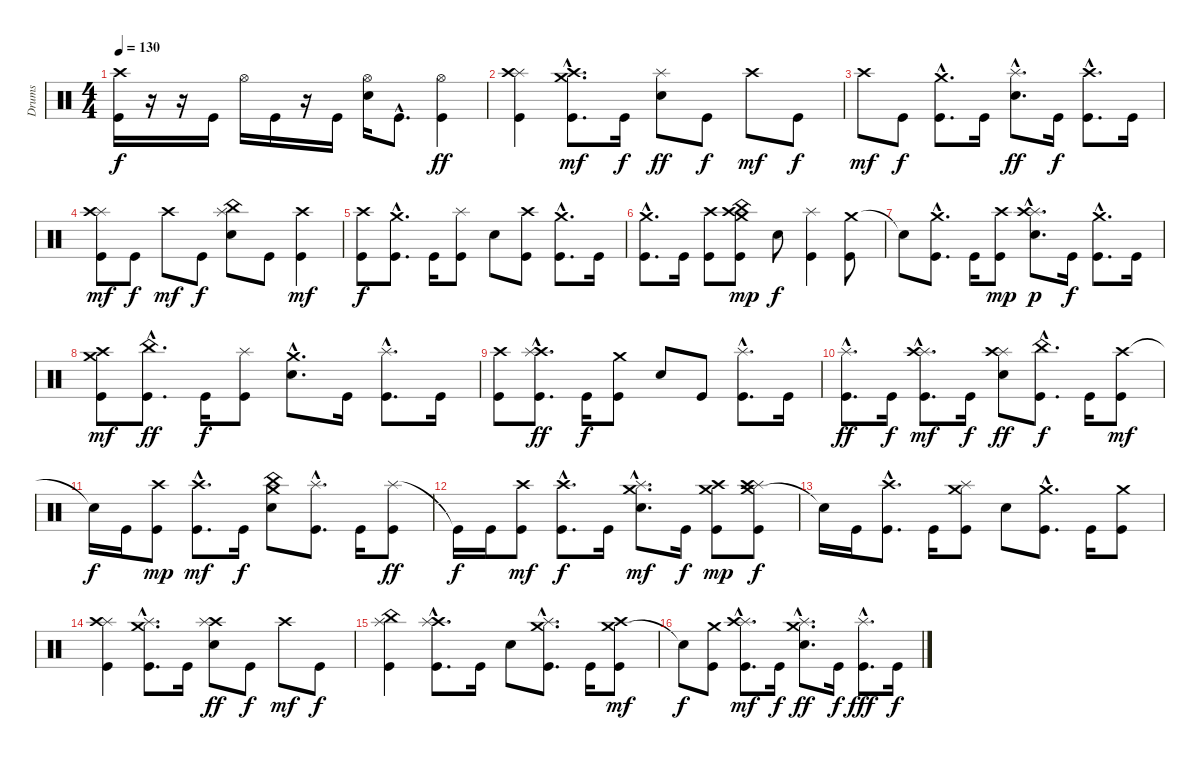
\track ("Drums" "Drums") {instrument percussion}
\staff {score}
\articulation defaults
\ts (4 4)
\tempo 130
\clef neutral
\ks c
("Crash high (hit)" "Kick (hit)").16{dy f} r.16 r.16 "Kick (hit)".16 "Hi-Hat (open)".16 "Kick (hit)".16 r.16 "Kick (hit)".16 ("Hi-Hat (open)" "Electric Snare (hit)").16 "Kick (hit)"{hac}.8{d} ("Hi-Hat (open)" "Kick (hit)").4{dy ff} |
("Splash (hit)" "Crash high (hit)" "Kick (hit)").4 ("Crash medium (hit)"{hac} "Crash high (hit)"{hac} "Kick (hit)"{hac}).8{d dy mf} "Kick (hit)".16{dy f} ("Splash (hit)" "Electric Snare (hit)").8{dy ff} "Kick (hit)".8{dy f} "Crash high (hit)".8{dy mf} "Kick (hit)".8{dy f} |
"Crash high (hit)".8{dy mf} "Kick (hit)".8{dy f} ("Crash medium (hit)"{hac} "Kick (hit)"{hac}).8{d} "Kick (hit)".16 ("Splash (hit)"{hac} "Electric Snare (hit)"{hac}).8{d dy ff} "Kick (hit)".16{dy f} ("Crash high (hit)"{hac} "Kick (hit)"{hac}).8{d} "Kick (hit)".16 |
("Splash (hit)" "Crash high (hit)" "Kick (hit)").8{dy mf} "Kick (hit)".8{dy f} "Crash high (hit)".8{dy mf} "Kick (hit)".8{dy f} ("Splash (hit)" "China (hit)" "Electric Snare (hit)").8 "Kick (hit)".8 ("Crash high (hit)" "Kick (hit)").4{dy mf} |
("Crash high (hit)" "Kick (hit)").8{dy f} ("Crash medium (hit)"{hac} "Kick (hit)"{hac}).8{d} "Kick (hit)".16 ("Splash (hit)" "Kick (hit)").8 "Electric Snare (hit)".8 ("Crash high (hit)" "Kick (hit)").8 ("Crash medium (hit)"{hac} "Kick (hit)"{hac}).8{d} "Kick (hit)".16 |
("Crash medium (hit)"{hac} "Kick (hit)"{hac}).8{d} "Kick (hit)".16 ("Crash high (hit)" "Kick (hit)").8 ("China (hit)" "Crash high (hit)" "Crash medium (hit)" "Kick (hit)").8{dy mp} "Electric Snare (hit)".8{dy f} ("Splash (hit)" "Kick (hit)").4 ("Crash medium (hit)" "Kick (hit)").8 |
"Snare (hit)"{t}.8 ("Crash medium (hit)"{hac} "Kick (hit)"{hac}).8{d} "Kick (hit)".16 ("Crash high (hit)" "Kick (hit)").8{dy mp} ("Splash (hit)"{hac} "Crash high (hit)"{hac} "Electric Snare (hit)"{hac}).8{d dy p} "Kick (hit)".16{dy f} ("Crash medium (hit)"{hac} "Kick (hit)"{hac}).8{d} "Kick (hit)".16 |
("Crash medium (hit)" "Crash high (hit)" "Kick (hit)").8{dy mf} ("China (hit)"{hac} "Kick (hit)"{hac}).8{d dy ff} "Kick (hit)".16{dy f} ("Splash (hit)" "Kick (hit)").8 ("Crash medium (hit)"{hac} "Electric Snare (hit)"{hac}).8{d} "Kick (hit)".16 ("Splash (hit)"{hac} "Kick (hit)"{hac}).8{d} "Kick (hit)".16 |
("Crash high (hit)" "Kick (hit)").8 ("Crash high (hit)"{hac} "Splash (hit)"{hac} "Kick (hit)"{hac}).8{d dy ff} "Kick (hit)".16{dy f} ("Crash medium (hit)" "Kick (hit)").8 "Electric Snare (hit)".8 "Kick (hit)".8 ("Splash (hit)"{hac} "Kick (hit)"{hac}).8{d} "Kick (hit)".16 |
("Splash (hit)"{hac} "Kick (hit)"{hac}).8{d dy ff} "Kick (hit)".16{dy f} ("Splash (hit)"{hac} "Crash high (hit)"{hac} "Kick (hit)"{hac}).8{d dy mf} "Kick (hit)".16{dy f} ("Splash (hit)" "Crash high (hit)" "Electric Snare (hit)").8{dy ff} ("China (hit)"{hac} "Kick (hit)"{hac}).8{d dy f} "Kick (hit)".16 ("Crash high (hit)" "Kick (hit)").8{dy mf} |
"Snare (hit)"{t}.16{dy f} "Kick (hit)".16 ("Crash high (hit)" "Kick (hit)").8{dy mp} ("Crash high (hit)"{hac} "Kick (hit)"{hac}).8{d dy mf} "Kick (hit)".16{dy f} ("Crash medium (hit)" "China (hit)" "Electric Snare (hit)").8 ("Splash (hit)"{hac} "Kick (hit)"{hac}).8{d} "Kick (hit)".16 ("Splash (hit)" "Kick (hit)").8{dy ff} |
"Kick (hit)"{t}.16{dy f} "Kick (hit)".16 ("Crash high (hit)" "Kick (hit)").8{dy mf} ("Crash high (hit)"{hac} "Kick (hit)"{hac}).8{d dy f} "Kick (hit)".16 ("Crash medium (hit)"{hac} "Splash (hit)"{hac} "Electric Snare (hit)"{hac}).8{d dy mf} "Kick (hit)".16{dy f} ("Crash medium (hit)" "Crash high (hit)" "Kick (hit)").8{dy mp} ("Crash medium (hit)" "Splash (hit)" "Crash high (hit)" "Kick (hit)").8{dy f} |
"Snare (hit)"{t}.16 "Kick (hit)".16 ("Crash high (hit)"{hac} "Kick (hit)"{hac}).8{d} "Kick (hit)".16 ("Splash (hit)" "Crash medium (hit)" "Kick (hit)").8 "Electric Snare (hit)".8 ("Crash medium (hit)"{hac} "Kick (hit)"{hac}).8{d} "Kick (hit)".16 ("Crash medium (hit)" "Kick (hit)").8 |
("Splash (hit)" "Crash high (hit)" "Kick (hit)").4 ("Crash medium (hit)"{hac} "Splash (hit)"{hac} "Kick (hit)"{hac}).8{d} "Kick (hit)".16 ("Crash high (hit)" "Splash (hit)" "Electric Snare (hit)").8{dy ff} "Kick (hit)".8{dy f} "Crash high (hit)".8{dy mf} "Kick (hit)".8{dy f} |
("China (hit)" "Splash (hit)" "Kick (hit)").4 ("Crash high (hit)"{hac} "Splash (hit)"{hac} "Kick (hit)"{hac}).8{d} "Kick (hit)".16 "Electric Snare (hit)".8 ("Crash medium (hit)"{hac} "Splash (hit)"{hac} "Kick (hit)"{hac}).8{d} "Kick (hit)".16 ("Crash medium (hit)" "Crash high (hit)" "Kick (hit)").8{dy mf} |
"Snare (hit)"{t}.8{dy f} ("Crash medium (hit)" "Kick (hit)").8 ("Splash (hit)"{hac} "Crash high (hit)"{hac} "Kick (hit)"{hac}).8{d dy mf} "Kick (hit)".16{dy f} ("Splash (hit)"{hac} "Crash medium (hit)"{hac} "Electric Snare (hit)"{hac}).8{d dy ff} "Kick (hit)".16{dy f} ("Splash (hit)"{hac} "Kick (hit)"{hac}).8{d dy fff} "Kick (hit)".16{dy f}
